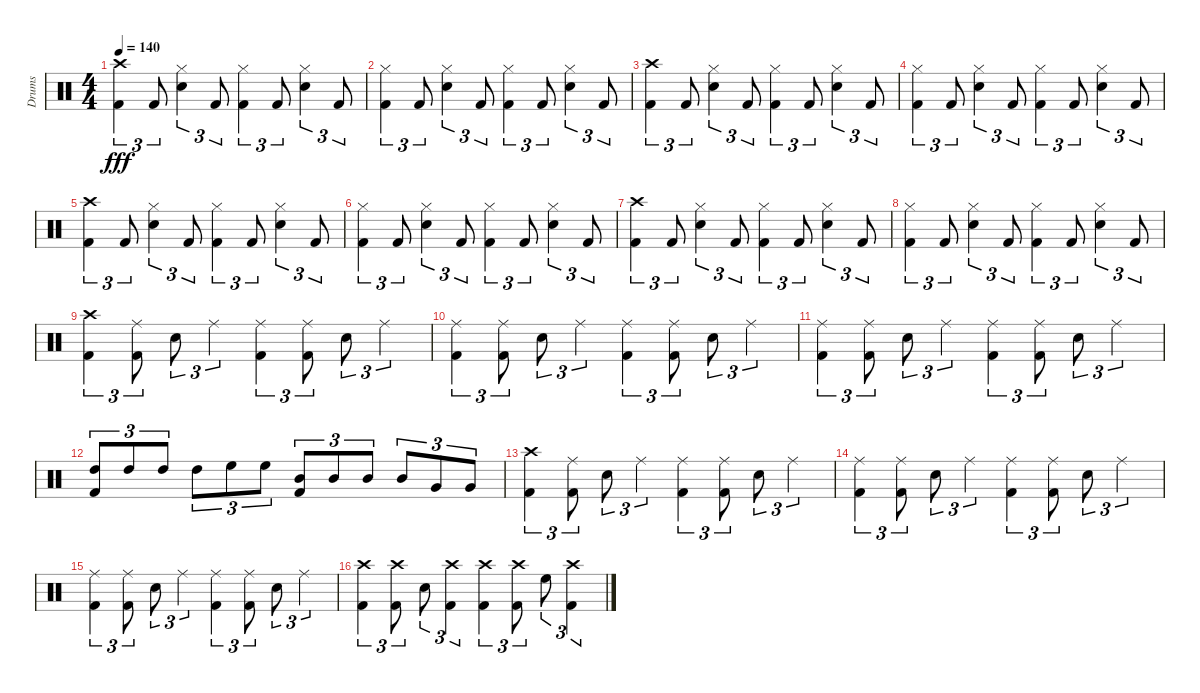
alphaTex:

\track ("Drums" "Drums") {instrument percussion}
\staff {score}
\articulation defaults
\ts (4 4)
\tempo 140
\clef neutral
\ks c
("Crash high (hit)" "Kick (hit) 2").4{tu (3 2) dy fff} "Kick (hit) 2".8{tu (3 2)} ("Hi-Hat (closed)" "Snare (hit) 2").4{tu (3 2)} "Kick (hit) 2".8{tu (3 2)} ("Kick (hit) 2" "Hi-Hat (closed)").4{tu (3 2)} "Kick (hit) 2".8{tu (3 2)} ("Hi-Hat (closed)" "Snare (hit) 2").4{tu (3 2)} "Kick (hit) 2".8{tu (3 2)} |
("Kick (hit) 2" "Hi-Hat (closed)").4{tu (3 2)} "Kick (hit) 2".8{tu (3 2)} ("Hi-Hat (closed)" "Snare (hit) 2").4{tu (3 2)} "Kick (hit) 2".8{tu (3 2)} ("Kick (hit) 2" "Hi-Hat (closed)").4{tu (3 2)} "Kick (hit) 2".8{tu (3 2)} ("Hi-Hat (closed)" "Snare (hit) 2").4{tu (3 2)} "Kick (hit) 2".8{tu (3 2)} |
("Crash high (hit)" "Kick (hit) 2").4{tu (3 2)} "Kick (hit) 2".8{tu (3 2)} ("Hi-Hat (closed)" "Snare (hit) 2").4{tu (3 2)} "Kick (hit) 2".8{tu (3 2)} ("Kick (hit) 2" "Hi-Hat (closed)").4{tu (3 2)} "Kick (hit) 2".8{tu (3 2)} ("Hi-Hat (closed)" "Snare (hit) 2").4{tu (3 2)} "Kick (hit) 2".8{tu (3 2)} |
("Kick (hit) 2" "Hi-Hat (closed)").4{tu (3 2)} "Kick (hit) 2".8{tu (3 2)} ("Hi-Hat (closed)" "Snare (hit) 2").4{tu (3 2)} "Kick (hit) 2".8{tu (3 2)} ("Kick (hit) 2" "Hi-Hat (closed)").4{tu (3 2)} "Kick (hit) 2".8{tu (3 2)} ("Hi-Hat (closed)" "Snare (hit) 2").4{tu (3 2)} "Kick (hit) 2".8{tu (3 2)} |
("Crash high (hit)" "Kick (hit) 2").4{tu (3 2)} "Kick (hit) 2".8{tu (3 2)} ("Hi-Hat (closed)" "Snare (hit) 2").4{tu (3 2)} "Kick (hit) 2".8{tu (3 2)} ("Kick (hit) 2" "Hi-Hat (closed)").4{tu (3 2)} "Kick (hit) 2".8{tu (3 2)} ("Hi-Hat (closed)" "Snare (hit) 2").4{tu (3 2)} "Kick (hit) 2".8{tu (3 2)} |
("Kick (hit) 2" "Hi-Hat (closed)").4{tu (3 2)} "Kick (hit) 2".8{tu (3 2)} ("Hi-Hat (closed)" "Snare (hit) 2").4{tu (3 2)} "Kick (hit) 2".8{tu (3 2)} ("Kick (hit) 2" "Hi-Hat (closed)").4{tu (3 2)} "Kick (hit) 2".8{tu (3 2)} ("Hi-Hat (closed)" "Snare (hit) 2").4{tu (3 2)} "Kick (hit) 2".8{tu (3 2)} |
("Crash high (hit)" "Kick (hit) 2").4{tu (3 2)} "Kick (hit) 2".8{tu (3 2)} ("Hi-Hat (closed)" "Snare (hit) 2").4{tu (3 2)} "Kick (hit) 2".8{tu (3 2)} ("Kick (hit) 2" "Hi-Hat (closed)").4{tu (3 2)} "Kick (hit) 2".8{tu (3 2)} ("Hi-Hat (closed)" "Snare (hit) 2").4{tu (3 2)} "Kick (hit) 2".8{tu (3 2)} |
("Kick (hit) 2" "Hi-Hat (closed)").4{tu (3 2)} "Kick (hit) 2".8{tu (3 2)} ("Hi-Hat (closed)" "Snare (hit) 2").4{tu (3 2)} "Kick (hit) 2".8{tu (3 2)} ("Kick (hit) 2" "Hi-Hat (closed)").4{tu (3 2)} "Kick (hit) 2".8{tu (3 2)} ("Hi-Hat (closed)" "Snare (hit) 2").4{tu (3 2)} "Kick (hit) 2".8{tu (3 2)} |
("Kick (hit) 2" "Crash high (hit)").4{tu (3 2)} ("Kick (hit) 2" "Ride (middle)").8{tu (3 2)} "Snare (hit) 2".8{tu (3 2)} "Ride (middle)".4{tu (3 2)} ("Kick (hit) 2" "Ride (middle)").4{tu (3 2)} ("Kick (hit) 2" "Ride (middle)").8{tu (3 2)} "Snare (hit) 2".8{tu (3 2)} "Ride (middle)".4{tu (3 2)} |
("Kick (hit) 2" "Ride (middle)").4{tu (3 2)} ("Kick (hit) 2" "Ride (middle)").8{tu (3 2)} "Snare (hit) 2".8{tu (3 2)} "Ride (middle)".4{tu (3 2)} ("Kick (hit) 2" "Ride (middle)").4{tu (3 2)} ("Kick (hit) 2" "Ride (middle)").8{tu (3 2)} "Snare (hit) 2".8{tu (3 2)} "Ride (middle)".4{tu (3 2)} |
("Kick (hit) 2" "Ride (middle)").4{tu (3 2)} ("Kick (hit) 2" "Ride (middle)").8{tu (3 2)} "Snare (hit) 2".8{tu (3 2)} "Ride (middle)".4{tu (3 2)} ("Kick (hit) 2" "Ride (middle)").4{tu (3 2)} ("Kick (hit) 2" "Ride (middle)").8{tu (3 2)} "Snare (hit) 2".8{tu (3 2)} "Ride (middle)".4{tu (3 2)} |
("Kick (hit) 2" "High Tom (hit)").8{tu (3 2)} "High Tom (hit)".8{tu (3 2)} "High Tom (hit)".8{tu (3 2)} "High Tom (hit)".8{tu (3 2)} "High Floor Tom (hit)".8{tu (3 2)} "High Floor Tom (hit)".8{tu (3 2)} ("Mid Tom (hit)" "Kick (hit) 2").8{tu (3 2)} "Mid Tom (hit)".8{tu (3 2)} "Mid Tom (hit)".8{tu (3 2)} "Mid Tom (hit)".8{tu (3 2)} "Very Low Tom (hit)".8{tu (3 2)} "Very Low Tom (hit)".8{tu (3 2)} |
("Kick (hit) 2" "Crash high (hit)").4{tu (3 2)} ("Kick (hit) 2" "Ride (middle)").8{tu (3 2)} "Snare (hit) 2".8{tu (3 2)} "Ride (middle)".4{tu (3 2)} ("Kick (hit) 2" "Ride (middle)").4{tu (3 2)} ("Kick (hit) 2" "Ride (middle)").8{tu (3 2)} "Snare (hit) 2".8{tu (3 2)} "Ride (middle)".4{tu (3 2)} |
("Kick (hit) 2" "Ride (middle)").4{tu (3 2)} ("Kick (hit) 2" "Ride (middle)").8{tu (3 2)} "Snare (hit) 2".8{tu (3 2)} "Ride (middle)".4{tu (3 2)} ("Kick (hit) 2" "Ride (middle)").4{tu (3 2)} ("Kick (hit) 2" "Ride (middle)").8{tu (3 2)} "Snare (hit) 2".8{tu (3 2)} "Ride (middle)".4{tu (3 2)} |
("Kick (hit) 2" "Ride (middle)").4{tu (3 2)} ("Kick (hit) 2" "Ride (middle)").8{tu (3 2)} "Snare (hit) 2".8{tu (3 2)} "Ride (middle)".4{tu (3 2)} ("Kick (hit) 2" "Ride (middle)").4{tu (3 2)} ("Kick (hit) 2" "Ride (middle)").8{tu (3 2)} "Snare (hit) 2".8{tu (3 2)} "Ride (middle)".4{tu (3 2)} |
("Crash high (hit)" "Kick (hit) 2").4{tu (3 2)} ("Crash high (hit)" "Kick (hit) 2").8{tu (3 2)} "Snare (hit) 2".8{tu (3 2)} ("Kick (hit) 2" "Crash high (hit)").4{tu (3 2)} ("Crash high (hit)" "Kick (hit) 2").4{tu (3 2)} ("Crash high (hit)" "Kick (hit) 2").8{tu (3 2)} "High Floor Tom (hit)".8{tu (3 2)} ("Crash high (hit)" "Kick (hit) 2").4{tu (3 2)}
